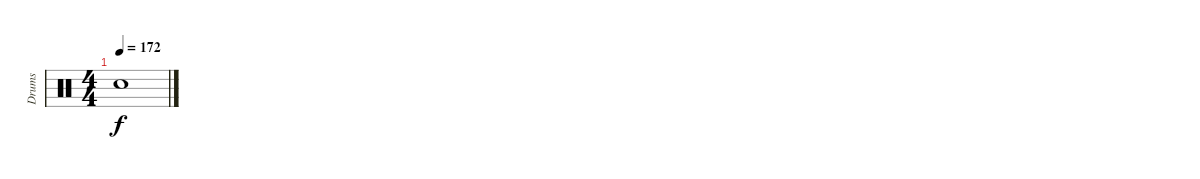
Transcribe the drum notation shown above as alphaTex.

\track ("Drums" "Drums") {instrument percussion}
\staff {score}
\articulation defaults
\ts (4 4)
\tempo 172
\clef neutral
\ks c "Snare (hit)"{t}.1{dy f}
